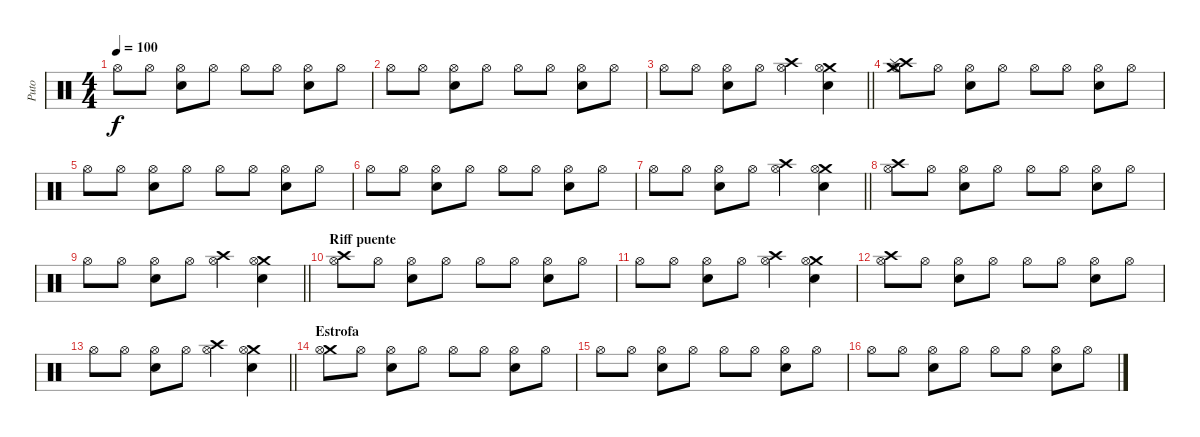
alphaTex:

\track ("Puto" "Puto") {instrument percussion}
\staff {score}
\articulation defaults
\ts (4 4)
\tempo 100
\clef neutral
\ks c "Hi-Hat (open)".8{dy f} "Hi-Hat (open)".8
("Snare (hit) 2" "Hi-Hat (open)").8 "Hi-Hat (open)".8 "Hi-Hat (open)".8 "Hi-Hat (open)".8 ("Snare (hit) 2" "Hi-Hat (open)").8 "Hi-Hat (open)".8 |
"Hi-Hat (open)".8 "Hi-Hat (open)".8 ("Snare (hit) 2" "Hi-Hat (open)").8 "Hi-Hat (open)".8 "Hi-Hat (open)".8 "Hi-Hat (open)".8 ("Snare (hit) 2" "Hi-Hat (open)").8 "Hi-Hat (open)".8 |
\barLineRight lightlight "Hi-Hat (open)".8 "Hi-Hat (open)".8
("Snare (hit) 2" "Hi-Hat (open)").8 "Hi-Hat (open)".8 ("Crash high (hit)" "Hi-Hat (open)").4 ("Crash medium (hit)" "Snare (hit) 2" "Hi-Hat (open)").4 |
("Crash medium (hit)" "Crash high (hit)" "Splash (hit)" "Hi-Hat (open)").8 "Hi-Hat (open)".8 ("Snare (hit) 2" "Hi-Hat (open)").8 "Hi-Hat (open)".8 "Hi-Hat (open)".8 "Hi-Hat (open)".8 ("Snare (hit) 2" "Hi-Hat (open)").8 "Hi-Hat (open)".8 |
"Hi-Hat (open)".8 "Hi-Hat (open)".8 ("Snare (hit) 2" "Hi-Hat (open)").8 "Hi-Hat (open)".8 "Hi-Hat (open)".8 "Hi-Hat (open)".8 ("Snare (hit) 2" "Hi-Hat (open)").8 "Hi-Hat (open)".8 |
"Hi-Hat (open)".8 "Hi-Hat (open)".8 ("Snare (hit) 2" "Hi-Hat (open)").8 "Hi-Hat (open)".8 "Hi-Hat (open)".8 "Hi-Hat (open)".8 ("Snare (hit) 2" "Hi-Hat (open)").8 "Hi-Hat (open)".8 |
\barLineRight lightlight "Hi-Hat (open)".8 "Hi-Hat (open)".8
("Snare (hit) 2" "Hi-Hat (open)").8 "Hi-Hat (open)".8 ("Crash high (hit)" "Hi-Hat (open)").4 ("Crash medium (hit)" "Snare (hit) 2" "Hi-Hat (open)").4 |
("Crash high (hit)" "Hi-Hat (open)").8 "Hi-Hat (open)".8 ("Snare (hit) 2" "Hi-Hat (open)").8 "Hi-Hat (open)".8 "Hi-Hat (open)".8 "Hi-Hat (open)".8 ("Snare (hit) 2" "Hi-Hat (open)").8 "Hi-Hat (open)".8 |
\barLineRight lightlight "Hi-Hat (open)".8 "Hi-Hat (open)".8
("Snare (hit) 2" "Hi-Hat (open)").8 "Hi-Hat (open)".8 ("Crash high (hit)" "Hi-Hat (open)").4 ("Crash medium (hit)" "Snare (hit) 2" "Hi-Hat (open)").4 |
\section ("" "Riff puente")
("Crash high (hit)" "Hi-Hat (open)").8 "Hi-Hat (open)".8 ("Snare (hit) 2" "Hi-Hat (open)").8 "Hi-Hat (open)".8 "Hi-Hat (open)".8 "Hi-Hat (open)".8 ("Snare (hit) 2" "Hi-Hat (open)").8 "Hi-Hat (open)".8 |
"Hi-Hat (open)".8 "Hi-Hat (open)".8 ("Snare (hit) 2" "Hi-Hat (open)").8 "Hi-Hat (open)".8 ("Crash high (hit)" "Hi-Hat (open)").4 ("Crash medium (hit)" "Snare (hit) 2" "Hi-Hat (open)").4 |
("Crash high (hit)" "Hi-Hat (open)").8 "Hi-Hat (open)".8 ("Snare (hit) 2" "Hi-Hat (open)").8 "Hi-Hat (open)".8 "Hi-Hat (open)".8 "Hi-Hat (open)".8 ("Snare (hit) 2" "Hi-Hat (open)").8 "Hi-Hat (open)".8 |
\barLineRight lightlight "Hi-Hat (open)".8 "Hi-Hat (open)".8
("Snare (hit) 2" "Hi-Hat (open)").8 "Hi-Hat (open)".8 ("Crash high (hit)" "Hi-Hat (open)").4 ("Crash medium (hit)" "Snare (hit) 2" "Hi-Hat (open)").4 |
\section ("" "Estrofa")
("Crash medium (hit)" "Hi-Hat (open)").8 "Hi-Hat (open)".8 ("Snare (hit) 2" "Hi-Hat (open)").8 "Hi-Hat (open)".8 "Hi-Hat (open)".8 "Hi-Hat (open)".8 ("Snare (hit) 2" "Hi-Hat (open)").8 "Hi-Hat (open)".8 |
"Hi-Hat (open)".8 "Hi-Hat (open)".8 ("Snare (hit) 2" "Hi-Hat (open)").8 "Hi-Hat (open)".8 "Hi-Hat (open)".8 "Hi-Hat (open)".8 ("Snare (hit) 2" "Hi-Hat (open)").8 "Hi-Hat (open)".8 |
"Hi-Hat (open)".8 "Hi-Hat (open)".8 ("Snare (hit) 2" "Hi-Hat (open)").8 "Hi-Hat (open)".8 "Hi-Hat (open)".8 "Hi-Hat (open)".8 ("Snare (hit) 2" "Hi-Hat (open)").8 "Hi-Hat (open)".8
